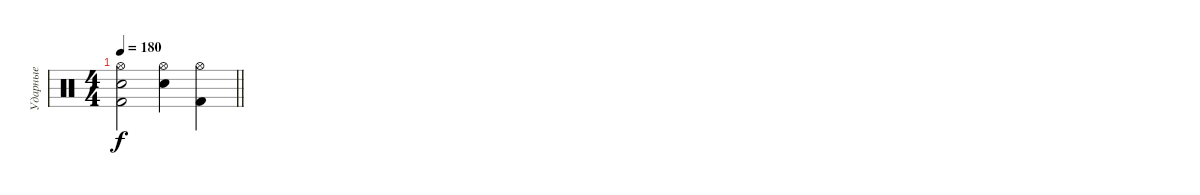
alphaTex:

\track ("Ударные" "Ударные") {instrument percussion}
\staff {score}
\articulation defaults
\ts (4 4)
\tempo 180
\clef neutral
\barLineRight lightlight
\ks c
("Electric Snare (hit)"{t} "Kick (hit) 2"{t} "Hi-Hat (open)"{t}).2{dy f} ("Electric Snare (hit)" "Hi-Hat (open)").4 ("Kick (hit) 2" "Hi-Hat (open)").4
